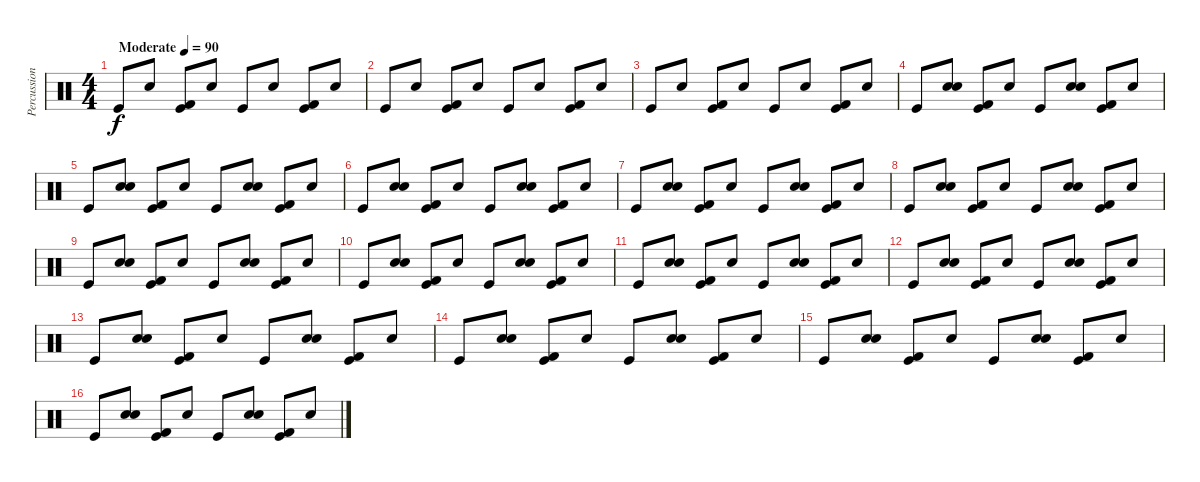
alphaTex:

\track ("Percussion" "Percussion") {instrument percussion}
\staff {score}
\articulation defaults
\ts (4 4)
\tempo (90 "Moderate")
\clef neutral
\ks c "Kick (hit)".8{dy f} "Metronome (bell)".8
("Kick (hit) 2" "Kick (hit)").8 "Metronome (bell)".8 "Kick (hit)".8 "Metronome (bell)".8 ("Kick (hit) 2" "Kick (hit)").8 "Metronome (bell)".8 |
"Kick (hit)".8 "Metronome (bell)".8 ("Kick (hit) 2" "Kick (hit)").8 "Metronome (bell)".8 "Kick (hit)".8 "Metronome (bell)".8 ("Kick (hit) 2" "Kick (hit)").8 "Metronome (bell)".8 |
"Kick (hit)".8 "Metronome (bell)".8 ("Kick (hit) 2" "Kick (hit)").8 "Metronome (bell)".8 "Kick (hit)".8 "Metronome (bell)".8 ("Kick (hit) 2" "Kick (hit)").8 "Metronome (bell)".8 |
"Kick (hit)".8 ("Snare (hit) 2" "Metronome (bell)").8 ("Kick (hit) 2" "Kick (hit)").8 "Snare (hit) 2".8 "Kick (hit)".8 ("Snare (hit) 2" "Metronome (bell)").8 ("Kick (hit) 2" "Kick (hit)").8 "Snare (hit) 2".8 |
"Kick (hit)".8 ("Snare (hit) 2" "Metronome (bell)").8 ("Kick (hit) 2" "Kick (hit)").8 "Snare (hit) 2".8 "Kick (hit)".8 ("Snare (hit) 2" "Metronome (bell)").8 ("Kick (hit) 2" "Kick (hit)").8 "Snare (hit) 2".8 |
"Kick (hit)".8 ("Snare (hit) 2" "Metronome (bell)").8 ("Kick (hit) 2" "Kick (hit)").8 "Snare (hit) 2".8 "Kick (hit)".8 ("Snare (hit) 2" "Metronome (bell)").8 ("Kick (hit) 2" "Kick (hit)").8 "Snare (hit) 2".8 |
"Kick (hit)".8 ("Snare (hit) 2" "Metronome (bell)").8 ("Kick (hit) 2" "Kick (hit)").8 "Snare (hit) 2".8 "Kick (hit)".8 ("Snare (hit) 2" "Metronome (bell)").8 ("Kick (hit) 2" "Kick (hit)").8 "Snare (hit) 2".8 |
"Kick (hit)".8 ("Snare (hit) 2" "Metronome (bell)").8 ("Kick (hit) 2" "Kick (hit)").8 "Snare (hit) 2".8 "Kick (hit)".8 ("Snare (hit) 2" "Metronome (bell)").8 ("Kick (hit) 2" "Kick (hit)").8 "Snare (hit) 2".8 |
"Kick (hit)".8 ("Snare (hit) 2" "Metronome (bell)").8 ("Kick (hit) 2" "Kick (hit)").8 "Snare (hit) 2".8 "Kick (hit)".8 ("Snare (hit) 2" "Metronome (bell)").8 ("Kick (hit) 2" "Kick (hit)").8 "Snare (hit) 2".8 |
"Kick (hit)".8 ("Snare (hit) 2" "Metronome (bell)").8 ("Kick (hit) 2" "Kick (hit)").8 "Snare (hit) 2".8 "Kick (hit)".8 ("Snare (hit) 2" "Metronome (bell)").8 ("Kick (hit) 2" "Kick (hit)").8 "Snare (hit) 2".8 |
"Kick (hit)".8 ("Snare (hit) 2" "Metronome (bell)").8 ("Kick (hit) 2" "Kick (hit)").8 "Snare (hit) 2".8 "Kick (hit)".8 ("Snare (hit) 2" "Metronome (bell)").8 ("Kick (hit) 2" "Kick (hit)").8 "Snare (hit) 2".8 |
"Kick (hit)".8 ("Snare (hit) 2" "Metronome (bell)").8 ("Kick (hit) 2" "Kick (hit)").8 "Snare (hit) 2".8 "Kick (hit)".8 ("Snare (hit) 2" "Metronome (bell)").8 ("Kick (hit) 2" "Kick (hit)").8 "Snare (hit) 2".8 |
"Kick (hit)".8 ("Snare (hit) 2" "Metronome (bell)").8 ("Kick (hit) 2" "Kick (hit)").8 "Snare (hit) 2".8 "Kick (hit)".8 ("Snare (hit) 2" "Metronome (bell)").8 ("Kick (hit) 2" "Kick (hit)").8 "Snare (hit) 2".8 |
"Kick (hit)".8 ("Snare (hit) 2" "Metronome (bell)").8 ("Kick (hit) 2" "Kick (hit)").8 "Snare (hit) 2".8 "Kick (hit)".8 ("Snare (hit) 2" "Metronome (bell)").8 ("Kick (hit) 2" "Kick (hit)").8 "Snare (hit) 2".8 |
"Kick (hit)".8 ("Snare (hit) 2" "Metronome (bell)").8 ("Kick (hit) 2" "Kick (hit)").8 "Snare (hit) 2".8 "Kick (hit)".8 ("Snare (hit) 2" "Metronome (bell)").8 ("Kick (hit) 2" "Kick (hit)").8 "Snare (hit) 2".8 |
"Kick (hit)".8 ("Snare (hit) 2" "Metronome (bell)").8 ("Kick (hit) 2" "Kick (hit)").8 "Snare (hit) 2".8 "Kick (hit)".8 ("Snare (hit) 2" "Metronome (bell)").8 ("Kick (hit) 2" "Kick (hit)").8 "Snare (hit) 2".8
